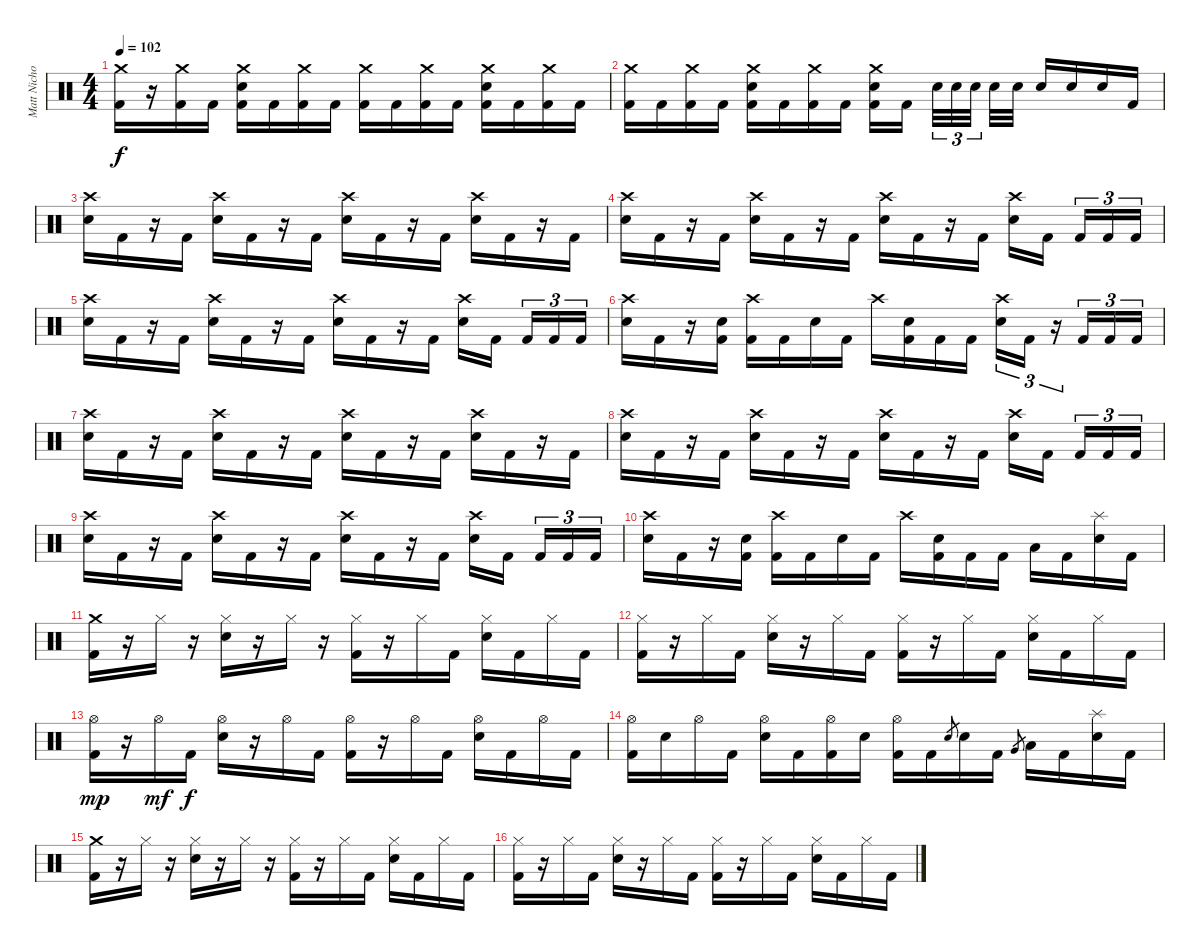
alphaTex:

\track ("Matt Nichols" "Matt Nicho") {instrument percussion}
\staff {score}
\articulation defaults
\ts (4 4)
\tempo 102
\clef neutral
\ks c
("Crash medium (hit)" "Kick (hit) 2").16{dy f} r.16 ("Crash medium (hit)" "Kick (hit) 2").16 "Kick (hit) 2".16 ("Crash medium (hit)" "Electric Snare (hit)" "Kick (hit) 2").16 "Kick (hit) 2".16 ("Crash medium (hit)" "Kick (hit) 2").16 "Kick (hit) 2".16 ("Crash medium (hit)" "Kick (hit) 2").16 "Kick (hit) 2".16 ("Crash medium (hit)" "Kick (hit) 2").16 "Kick (hit) 2".16 ("Crash medium (hit)" "Electric Snare (hit)" "Kick (hit) 2").16 "Kick (hit) 2".16 ("Crash medium (hit)" "Kick (hit) 2").16 "Kick (hit) 2".16 |
("Crash medium (hit)" "Kick (hit) 2").16 "Kick (hit) 2".16 ("Crash medium (hit)" "Kick (hit) 2").16 "Kick (hit) 2".16 ("Crash medium (hit)" "Electric Snare (hit)" "Kick (hit) 2").16 "Kick (hit) 2".16 ("Crash medium (hit)" "Kick (hit) 2").16 "Kick (hit) 2".16 ("Crash medium (hit)" "Electric Snare (hit)" "Kick (hit) 2").16 "Kick (hit) 2".16{beam splitsecondary} "Electric Snare (hit)".32{tu (3 2)} "Electric Snare (hit)".32{tu (3 2)} "Electric Snare (hit)".32{tu (3 2) beam splitsecondary} "Electric Snare (hit)".32 "Electric Snare (hit)".32 "Electric Snare (hit)".16 "Electric Snare (hit)".16 "Electric Snare (hit)".16 "Kick (hit) 2".16 |
("Crash high (hit)" "Electric Snare (hit)").16 "Kick (hit) 2".16 r.16 "Kick (hit) 2".16 ("Crash high (hit)" "Electric Snare (hit)").16 "Kick (hit) 2".16 r.16 "Kick (hit) 2".16 ("Crash high (hit)" "Electric Snare (hit)").16 "Kick (hit) 2".16 r.16 "Kick (hit) 2".16 ("Crash high (hit)" "Electric Snare (hit)").16 "Kick (hit) 2".16 r.16 "Kick (hit) 2".16 |
("Crash high (hit)" "Electric Snare (hit)").16 "Kick (hit) 2".16 r.16 "Kick (hit) 2".16 ("Crash high (hit)" "Electric Snare (hit)").16 "Kick (hit) 2".16 r.16 "Kick (hit) 2".16 ("Crash high (hit)" "Electric Snare (hit)").16 "Kick (hit) 2".16 r.16 "Kick (hit) 2".16 ("Crash high (hit)" "Electric Snare (hit)").16 "Kick (hit) 2".16{beam splitsecondary} "Kick (hit) 2".16{tu (3 2)} "Kick (hit) 2".16{tu (3 2)} "Kick (hit) 2".16{tu (3 2)} |
("Crash high (hit)" "Electric Snare (hit)").16 "Kick (hit) 2".16 r.16 "Kick (hit) 2".16 ("Crash high (hit)" "Electric Snare (hit)").16 "Kick (hit) 2".16 r.16 "Kick (hit) 2".16 ("Crash high (hit)" "Electric Snare (hit)").16 "Kick (hit) 2".16 r.16 "Kick (hit) 2".16 ("Crash high (hit)" "Electric Snare (hit)").16 "Kick (hit) 2".16{beam splitsecondary} "Kick (hit) 2".16{tu (3 2)} "Kick (hit) 2".16{tu (3 2)} "Kick (hit) 2".16{tu (3 2)} |
("Crash high (hit)" "Electric Snare (hit)").16 "Kick (hit) 2".16 r.16 ("Electric Snare (hit)" "Kick (hit) 2").16 ("Crash high (hit)" "Kick (hit) 2").16 "Kick (hit) 2".16 "Electric Snare (hit)".16 "Kick (hit) 2".16 "Crash high (hit)".16 ("Electric Snare (hit)" "Kick (hit) 2").16 "Kick (hit) 2".16 "Kick (hit) 2".16 ("Crash high (hit)" "Electric Snare (hit)").16{tu (3 2)} "Kick (hit) 2".16{tu (3 2)} r.16{tu (3 2)} "Kick (hit) 2".16{tu (3 2)} "Kick (hit) 2".16{tu (3 2)} "Kick (hit) 2".16{tu (3 2)} |
("Crash high (hit)" "Electric Snare (hit)").16 "Kick (hit) 2".16 r.16 "Kick (hit) 2".16 ("Crash high (hit)" "Electric Snare (hit)").16 "Kick (hit) 2".16 r.16 "Kick (hit) 2".16 ("Crash high (hit)" "Electric Snare (hit)").16 "Kick (hit) 2".16 r.16 "Kick (hit) 2".16 ("Crash high (hit)" "Electric Snare (hit)").16 "Kick (hit) 2".16 r.16 "Kick (hit) 2".16 |
("Crash high (hit)" "Electric Snare (hit)").16 "Kick (hit) 2".16 r.16 "Kick (hit) 2".16 ("Crash high (hit)" "Electric Snare (hit)").16 "Kick (hit) 2".16 r.16 "Kick (hit) 2".16 ("Crash high (hit)" "Electric Snare (hit)").16 "Kick (hit) 2".16 r.16 "Kick (hit) 2".16 ("Crash high (hit)" "Electric Snare (hit)").16 "Kick (hit) 2".16{beam splitsecondary} "Kick (hit) 2".16{tu (3 2)} "Kick (hit) 2".16{tu (3 2)} "Kick (hit) 2".16{tu (3 2)} |
("Crash high (hit)" "Electric Snare (hit)").16 "Kick (hit) 2".16 r.16 "Kick (hit) 2".16 ("Crash high (hit)" "Electric Snare (hit)").16 "Kick (hit) 2".16 r.16 "Kick (hit) 2".16 ("Crash high (hit)" "Electric Snare (hit)").16 "Kick (hit) 2".16 r.16 "Kick (hit) 2".16 ("Crash high (hit)" "Electric Snare (hit)").16 "Kick (hit) 2".16{beam splitsecondary} "Kick (hit) 2".16{tu (3 2)} "Kick (hit) 2".16{tu (3 2)} "Kick (hit) 2".16{tu (3 2)} |
("Crash high (hit)" "Electric Snare (hit)").16 "Kick (hit) 2".16 r.16 ("Electric Snare (hit)" "Kick (hit) 2").16 ("Crash high (hit)" "Kick (hit) 2").16 "Kick (hit) 2".16 "Electric Snare (hit)".16 "Kick (hit) 2".16 "Crash high (hit)".16 ("Electric Snare (hit)" "Kick (hit) 2").16 "Kick (hit) 2".16 "Kick (hit) 2".16 "Low Tom (hit)".16 "Kick (hit) 2".16 ("Splash (hit)" "Electric Snare (hit)").16 "Kick (hit) 2".16 |
("Crash medium (hit)" "Kick (hit) 2").16 r.16 "Hi-Hat (closed)".16 r.16 ("Hi-Hat (closed)" "Electric Snare (hit)").16 r.16 "Hi-Hat (closed)".16 r.16 ("Hi-Hat (closed)" "Kick (hit) 2").16 r.16 "Hi-Hat (closed)".16 "Kick (hit) 2".16 ("Hi-Hat (closed)" "Electric Snare (hit)").16 "Kick (hit) 2".16 "Hi-Hat (closed)".16 "Kick (hit) 2".16 |
("Hi-Hat (closed)" "Kick (hit) 2").16 r.16 "Hi-Hat (closed)".16 "Kick (hit) 2".16 ("Hi-Hat (closed)" "Electric Snare (hit)").16 r.16 "Hi-Hat (closed)".16 "Kick (hit) 2".16 ("Hi-Hat (closed)" "Kick (hit) 2").16 r.16 "Hi-Hat (closed)".16 "Kick (hit) 2".16 ("Hi-Hat (closed)" "Electric Snare (hit)").16 "Kick (hit) 2".16 "Hi-Hat (closed)".16 "Kick (hit) 2".16 |
("Hi-Hat (open)" "Kick (hit) 2").16{dy mp} r.16 "Hi-Hat (open)".16{dy mf} "Kick (hit) 2".16{dy f} ("Hi-Hat (open)" "Electric Snare (hit)").16 r.16 "Hi-Hat (open)".16 "Kick (hit) 2".16 ("Hi-Hat (open)" "Kick (hit) 2").16 r.16 "Hi-Hat (open)".16 "Kick (hit) 2".16 ("Hi-Hat (open)" "Electric Snare (hit)").16 "Kick (hit) 2".16 "Hi-Hat (open)".16 "Kick (hit) 2".16 |
("Hi-Hat (open)" "Kick (hit) 2").16 "Electric Snare (hit)".16 "Hi-Hat (open)".16 "Kick (hit) 2".16 ("Hi-Hat (open)" "Electric Snare (hit)").16 "Kick (hit) 2".16 ("Hi-Hat (open)" "Kick (hit) 2").16 "Electric Snare (hit)".16 ("Hi-Hat (open)" "Kick (hit) 2").16 "Kick (hit) 2".16 "Electric Snare (hit)".8{gr} "Electric Snare (hit)".16 "Kick (hit) 2".16 "Very Low Tom (hit)".8{gr} "Low Tom (hit)".16 "Kick (hit) 2".16 ("Splash (hit)" "Electric Snare (hit)").16 "Kick (hit) 2".16 |
("Crash medium (hit)" "Kick (hit) 2").16 r.16 "Hi-Hat (closed)".16 r.16 ("Hi-Hat (closed)" "Electric Snare (hit)").16 r.16 "Hi-Hat (closed)".16 r.16 ("Hi-Hat (closed)" "Kick (hit) 2").16 r.16 "Hi-Hat (closed)".16 "Kick (hit) 2".16 ("Hi-Hat (closed)" "Electric Snare (hit)").16 "Kick (hit) 2".16 "Hi-Hat (closed)".16 "Kick (hit) 2".16 |
("Hi-Hat (closed)" "Kick (hit) 2").16 r.16 "Hi-Hat (closed)".16 "Kick (hit) 2".16 ("Hi-Hat (closed)" "Electric Snare (hit)").16 r.16 "Hi-Hat (closed)".16 "Kick (hit) 2".16 ("Hi-Hat (closed)" "Kick (hit) 2").16 r.16 "Hi-Hat (closed)".16 "Kick (hit) 2".16 ("Hi-Hat (closed)" "Electric Snare (hit)").16 "Kick (hit) 2".16 "Hi-Hat (closed)".16 "Kick (hit) 2".16
